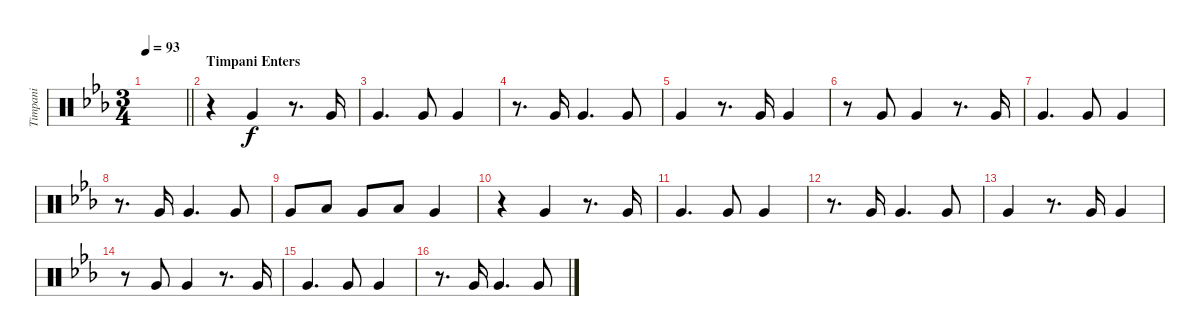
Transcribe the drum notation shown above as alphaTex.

\track ("Timpani" "Timpani") {instrument percussion}
\staff {score}
\articulation defaults
\ts (3 4)
\tempo 93
\clef neutral
\barLineRight lightlight
\ks cminor
|
\section ("" "Timpani Enters")
r.4 "Very Low Tom (hit)".4 r.8{d} "Very Low Tom (hit)".16 |
"Very Low Tom (hit)".4{d} "Very Low Tom (hit)".8 "Very Low Tom (hit)".4 |
r.8{d} "Very Low Tom (hit)".16 "Very Low Tom (hit)".4{d} "Very Low Tom (hit)".8 |
"Very Low Tom (hit)".4 r.8{d} "Very Low Tom (hit)".16 "Very Low Tom (hit)".4 |
r.8 "Very Low Tom (hit)".8 "Very Low Tom (hit)".4 r.8{d} "Very Low Tom (hit)".16 |
"Very Low Tom (hit)".4{d} "Very Low Tom (hit)".8 "Very Low Tom (hit)".4 |
r.8{d} "Very Low Tom (hit)".16 "Very Low Tom (hit)".4{d} "Very Low Tom (hit)".8 |
"Very Low Tom (hit)".8 "Low Floor Tom (hit)".8 "Very Low Tom (hit)".8 "Low Floor Tom (hit)".8 "Very Low Tom (hit)".4 |
r.4 "Very Low Tom (hit)".4 r.8{d} "Very Low Tom (hit)".16 |
"Very Low Tom (hit)".4{d} "Very Low Tom (hit)".8 "Very Low Tom (hit)".4 |
r.8{d} "Very Low Tom (hit)".16 "Very Low Tom (hit)".4{d} "Very Low Tom (hit)".8 |
"Very Low Tom (hit)".4 r.8{d} "Very Low Tom (hit)".16 "Very Low Tom (hit)".4 |
r.8 "Very Low Tom (hit)".8 "Very Low Tom (hit)".4 r.8{d} "Very Low Tom (hit)".16 |
"Very Low Tom (hit)".4{d} "Very Low Tom (hit)".8 "Very Low Tom (hit)".4 |
r.8{d} "Very Low Tom (hit)".16 "Very Low Tom (hit)".4{d} "Very Low Tom (hit)".8
